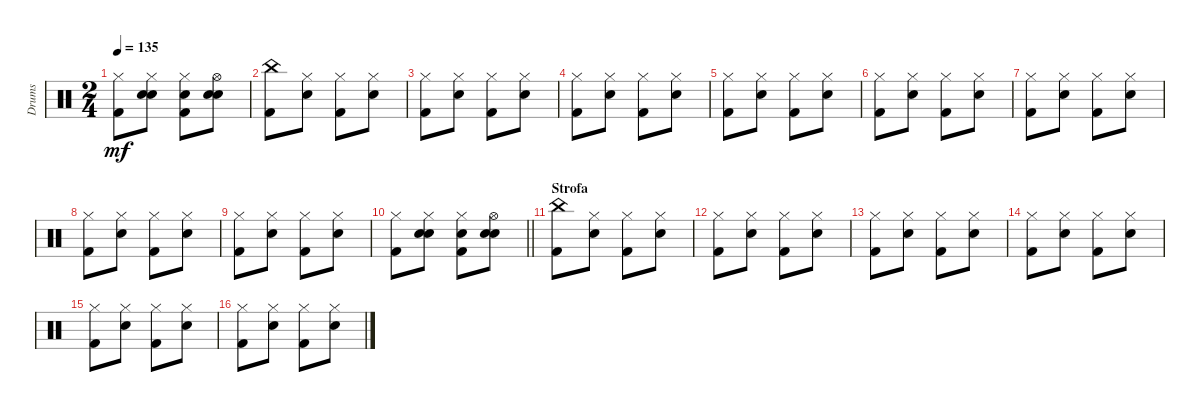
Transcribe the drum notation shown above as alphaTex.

\track ("Drums" "Drums") {instrument percussion}
\staff {score}
\articulation defaults
\ts (2 4)
\tempo 135
\clef neutral
\ks c
("Hi-Hat (closed)" "Kick (hit) 2").8{dy mf} ("Hi-Hat (closed)" "Electric Snare (hit)" "Hand Clap (hit)").8 ("Hi-Hat (closed)" "Hand Clap (hit)" "Kick (hit) 2").8 ("Hi-Hat (open)" "Electric Snare (hit)" "Hand Clap (hit)").8 |
("China (hit)" "Kick (hit) 2").8 ("Hi-Hat (closed)" "Electric Snare (hit)").8 ("Hi-Hat (closed)" "Kick (hit) 2").8 ("Hi-Hat (closed)" "Electric Snare (hit)").8 |
("Hi-Hat (closed)" "Kick (hit) 2").8 ("Hi-Hat (closed)" "Electric Snare (hit)").8 ("Hi-Hat (closed)" "Kick (hit) 2").8 ("Hi-Hat (closed)" "Electric Snare (hit)").8 |
("Hi-Hat (closed)" "Kick (hit) 2").8 ("Hi-Hat (closed)" "Electric Snare (hit)").8 ("Hi-Hat (closed)" "Kick (hit) 2").8 ("Hi-Hat (closed)" "Electric Snare (hit)").8 |
("Hi-Hat (closed)" "Kick (hit) 2").8 ("Hi-Hat (closed)" "Electric Snare (hit)").8 ("Hi-Hat (closed)" "Kick (hit) 2").8 ("Hi-Hat (closed)" "Electric Snare (hit)").8 |
("Hi-Hat (closed)" "Kick (hit) 2").8 ("Hi-Hat (closed)" "Electric Snare (hit)").8 ("Hi-Hat (closed)" "Kick (hit) 2").8 ("Hi-Hat (closed)" "Electric Snare (hit)").8 |
("Hi-Hat (closed)" "Kick (hit) 2").8 ("Hi-Hat (closed)" "Electric Snare (hit)").8 ("Hi-Hat (closed)" "Kick (hit) 2").8 ("Hi-Hat (closed)" "Electric Snare (hit)").8 |
("Hi-Hat (closed)" "Kick (hit) 2").8 ("Hi-Hat (closed)" "Electric Snare (hit)").8 ("Hi-Hat (closed)" "Kick (hit) 2").8 ("Hi-Hat (closed)" "Electric Snare (hit)").8 |
("Hi-Hat (closed)" "Kick (hit) 2").8 ("Hi-Hat (closed)" "Electric Snare (hit)").8 ("Hi-Hat (closed)" "Kick (hit) 2").8 ("Hi-Hat (closed)" "Electric Snare (hit)").8 |
\barLineRight lightlight
("Hi-Hat (closed)" "Kick (hit) 2").8 ("Hi-Hat (closed)" "Electric Snare (hit)" "Hand Clap (hit)").8 ("Hi-Hat (closed)" "Hand Clap (hit)" "Kick (hit) 2").8 ("Hi-Hat (open)" "Electric Snare (hit)" "Hand Clap (hit)").8 |
\section ("" "Strofa")
("China (hit)" "Kick (hit) 2").8 ("Hi-Hat (closed)" "Electric Snare (hit)").8 ("Hi-Hat (closed)" "Kick (hit) 2").8 ("Hi-Hat (closed)" "Electric Snare (hit)").8 |
("Hi-Hat (closed)" "Kick (hit) 2").8 ("Hi-Hat (closed)" "Electric Snare (hit)").8 ("Hi-Hat (closed)" "Kick (hit) 2").8 ("Hi-Hat (closed)" "Electric Snare (hit)").8 |
("Hi-Hat (closed)" "Kick (hit) 2").8 ("Hi-Hat (closed)" "Electric Snare (hit)").8 ("Hi-Hat (closed)" "Kick (hit) 2").8 ("Hi-Hat (closed)" "Electric Snare (hit)").8 |
("Hi-Hat (closed)" "Kick (hit) 2").8 ("Hi-Hat (closed)" "Electric Snare (hit)").8 ("Hi-Hat (closed)" "Kick (hit) 2").8 ("Hi-Hat (closed)" "Electric Snare (hit)").8 |
("Hi-Hat (closed)" "Kick (hit) 2").8 ("Hi-Hat (closed)" "Electric Snare (hit)").8 ("Hi-Hat (closed)" "Kick (hit) 2").8 ("Hi-Hat (closed)" "Electric Snare (hit)").8 |
("Hi-Hat (closed)" "Kick (hit) 2").8 ("Hi-Hat (closed)" "Electric Snare (hit)").8 ("Hi-Hat (closed)" "Kick (hit) 2").8 ("Hi-Hat (closed)" "Electric Snare (hit)").8
